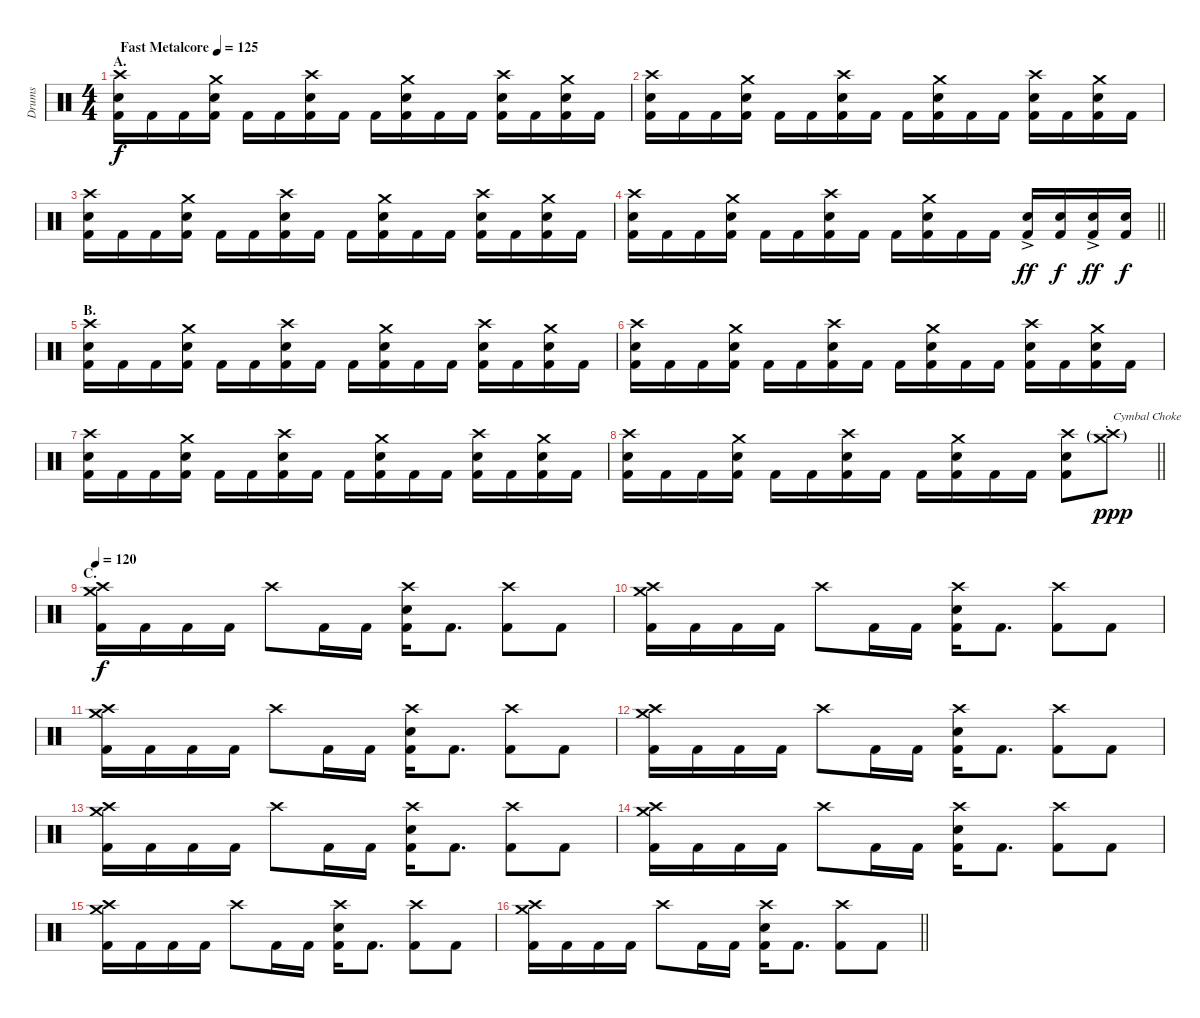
\track ("Drums" "Drums") {instrument percussion}
\staff {score}
\articulation defaults
\ts (4 4)
\section ("" "A.")
\tempo (125 "Fast Metalcore")
\clef neutral
\ks c
("Crash high (hit)" "Electric Snare (hit)" "Kick (hit) 2").16{dy f} "Kick (hit) 2".16 "Kick (hit) 2".16 ("Crash medium (hit)" "Electric Snare (hit)" "Kick (hit) 2").16 "Kick (hit) 2".16 "Kick (hit) 2".16 ("Crash high (hit)" "Electric Snare (hit)" "Kick (hit) 2").16 "Kick (hit) 2".16 "Kick (hit) 2".16 ("Crash medium (hit)" "Electric Snare (hit)" "Kick (hit) 2").16 "Kick (hit) 2".16 "Kick (hit) 2".16 ("Crash high (hit)" "Electric Snare (hit)" "Kick (hit) 2").16 "Kick (hit) 2".16 ("Crash medium (hit)" "Electric Snare (hit)" "Kick (hit) 2").16 "Kick (hit) 2".16 |
("Crash high (hit)" "Electric Snare (hit)" "Kick (hit) 2").16 "Kick (hit) 2".16 "Kick (hit) 2".16 ("Crash medium (hit)" "Electric Snare (hit)" "Kick (hit) 2").16 "Kick (hit) 2".16 "Kick (hit) 2".16 ("Crash high (hit)" "Electric Snare (hit)" "Kick (hit) 2").16 "Kick (hit) 2".16 "Kick (hit) 2".16 ("Crash medium (hit)" "Electric Snare (hit)" "Kick (hit) 2").16 "Kick (hit) 2".16 "Kick (hit) 2".16 ("Crash high (hit)" "Electric Snare (hit)" "Kick (hit) 2").16 "Kick (hit) 2".16 ("Crash medium (hit)" "Electric Snare (hit)" "Kick (hit) 2").16 "Kick (hit) 2".16 |
("Crash high (hit)" "Electric Snare (hit)" "Kick (hit) 2").16 "Kick (hit) 2".16 "Kick (hit) 2".16 ("Crash medium (hit)" "Electric Snare (hit)" "Kick (hit) 2").16 "Kick (hit) 2".16 "Kick (hit) 2".16 ("Crash high (hit)" "Electric Snare (hit)" "Kick (hit) 2").16 "Kick (hit) 2".16 "Kick (hit) 2".16 ("Crash medium (hit)" "Electric Snare (hit)" "Kick (hit) 2").16 "Kick (hit) 2".16 "Kick (hit) 2".16 ("Crash high (hit)" "Electric Snare (hit)" "Kick (hit) 2").16 "Kick (hit) 2".16 ("Crash medium (hit)" "Electric Snare (hit)" "Kick (hit) 2").16 "Kick (hit) 2".16 |
\barLineRight lightlight
("Crash high (hit)" "Electric Snare (hit)" "Kick (hit) 2").16 "Kick (hit) 2".16 "Kick (hit) 2".16 ("Crash medium (hit)" "Electric Snare (hit)" "Kick (hit) 2").16 "Kick (hit) 2".16 "Kick (hit) 2".16 ("Crash high (hit)" "Electric Snare (hit)" "Kick (hit) 2").16 "Kick (hit) 2".16 "Kick (hit) 2".16 ("Crash medium (hit)" "Electric Snare (hit)" "Kick (hit) 2").16 "Kick (hit) 2".16 "Kick (hit) 2".16 ("Electric Snare (hit)"{ac} "Kick (hit) 2").16{dy ff} ("Electric Snare (hit)" "Kick (hit) 2").16{dy f} ("Electric Snare (hit)"{ac} "Kick (hit) 2").16{dy ff} ("Electric Snare (hit)" "Kick (hit) 2").16{dy f} |
\section ("" "B.")
("Crash high (hit)" "Electric Snare (hit)" "Kick (hit) 2").16 "Kick (hit) 2".16 "Kick (hit) 2".16 ("Crash medium (hit)" "Electric Snare (hit)" "Kick (hit) 2").16 "Kick (hit) 2".16 "Kick (hit) 2".16 ("Crash high (hit)" "Electric Snare (hit)" "Kick (hit) 2").16 "Kick (hit) 2".16 "Kick (hit) 2".16 ("Crash medium (hit)" "Electric Snare (hit)" "Kick (hit) 2").16 "Kick (hit) 2".16 "Kick (hit) 2".16 ("Crash high (hit)" "Electric Snare (hit)" "Kick (hit) 2").16 "Kick (hit) 2".16 ("Crash medium (hit)" "Electric Snare (hit)" "Kick (hit) 2").16 "Kick (hit) 2".16 |
("Crash high (hit)" "Electric Snare (hit)" "Kick (hit) 2").16 "Kick (hit) 2".16 "Kick (hit) 2".16 ("Crash medium (hit)" "Electric Snare (hit)" "Kick (hit) 2").16 "Kick (hit) 2".16 "Kick (hit) 2".16 ("Crash high (hit)" "Electric Snare (hit)" "Kick (hit) 2").16 "Kick (hit) 2".16 "Kick (hit) 2".16 ("Crash medium (hit)" "Electric Snare (hit)" "Kick (hit) 2").16 "Kick (hit) 2".16 "Kick (hit) 2".16 ("Crash high (hit)" "Electric Snare (hit)" "Kick (hit) 2").16 "Kick (hit) 2".16 ("Crash medium (hit)" "Electric Snare (hit)" "Kick (hit) 2").16 "Kick (hit) 2".16 |
("Crash high (hit)" "Electric Snare (hit)" "Kick (hit) 2").16 "Kick (hit) 2".16 "Kick (hit) 2".16 ("Crash medium (hit)" "Electric Snare (hit)" "Kick (hit) 2").16 "Kick (hit) 2".16 "Kick (hit) 2".16 ("Crash high (hit)" "Electric Snare (hit)" "Kick (hit) 2").16 "Kick (hit) 2".16 "Kick (hit) 2".16 ("Crash medium (hit)" "Electric Snare (hit)" "Kick (hit) 2").16 "Kick (hit) 2".16 "Kick (hit) 2".16 ("Crash high (hit)" "Electric Snare (hit)" "Kick (hit) 2").16 "Kick (hit) 2".16 ("Crash medium (hit)" "Electric Snare (hit)" "Kick (hit) 2").16 "Kick (hit) 2".16 |
\barLineRight lightlight
("Crash high (hit)" "Electric Snare (hit)" "Kick (hit) 2").16 "Kick (hit) 2".16 "Kick (hit) 2".16 ("Crash medium (hit)" "Electric Snare (hit)" "Kick (hit) 2").16 "Kick (hit) 2".16 "Kick (hit) 2".16 ("Crash high (hit)" "Electric Snare (hit)" "Kick (hit) 2").16 "Kick (hit) 2".16 "Kick (hit) 2".16 ("Crash medium (hit)" "Electric Snare (hit)" "Kick (hit) 2").16 "Kick (hit) 2".16 "Kick (hit) 2".16 ("Crash high (hit)" "Electric Snare (hit)" "Kick (hit) 2").8 ("Crash high (hit)"{g st} "Crash medium (hit)"{g}).8{txt "Cymbal Choke" dy ppp} |
\section ("" "C.")
\tempo 120
("Crash medium (hit)" "Crash high (hit)" "Kick (hit) 2").16{dy f} "Kick (hit) 2".16 "Kick (hit) 2".16 "Kick (hit) 2".16 "Crash high (hit)".8 "Kick (hit) 2".16 "Kick (hit) 2".16 ("Crash high (hit)" "Electric Snare (hit)" "Kick (hit) 2").16 "Kick (hit) 2".8{d} ("Crash high (hit)" "Kick (hit) 2").8 "Kick (hit) 2".8 |
("Crash medium (hit)" "Crash high (hit)" "Kick (hit) 2").16 "Kick (hit) 2".16 "Kick (hit) 2".16 "Kick (hit) 2".16 "Crash high (hit)".8 "Kick (hit) 2".16 "Kick (hit) 2".16 ("Crash high (hit)" "Electric Snare (hit)" "Kick (hit) 2").16 "Kick (hit) 2".8{d} ("Crash high (hit)" "Kick (hit) 2").8 "Kick (hit) 2".8 |
("Crash medium (hit)" "Crash high (hit)" "Kick (hit) 2").16 "Kick (hit) 2".16 "Kick (hit) 2".16 "Kick (hit) 2".16 "Crash high (hit)".8 "Kick (hit) 2".16 "Kick (hit) 2".16 ("Crash high (hit)" "Electric Snare (hit)" "Kick (hit) 2").16 "Kick (hit) 2".8{d} ("Crash high (hit)" "Kick (hit) 2").8 "Kick (hit) 2".8 |
("Crash medium (hit)" "Crash high (hit)" "Kick (hit) 2").16 "Kick (hit) 2".16 "Kick (hit) 2".16 "Kick (hit) 2".16 "Crash high (hit)".8 "Kick (hit) 2".16 "Kick (hit) 2".16 ("Crash high (hit)" "Electric Snare (hit)" "Kick (hit) 2").16 "Kick (hit) 2".8{d} ("Crash high (hit)" "Kick (hit) 2").8 "Kick (hit) 2".8 |
("Crash medium (hit)" "Crash high (hit)" "Kick (hit) 2").16 "Kick (hit) 2".16 "Kick (hit) 2".16 "Kick (hit) 2".16 "Crash high (hit)".8 "Kick (hit) 2".16 "Kick (hit) 2".16 ("Crash high (hit)" "Electric Snare (hit)" "Kick (hit) 2").16 "Kick (hit) 2".8{d} ("Crash high (hit)" "Kick (hit) 2").8 "Kick (hit) 2".8 |
("Crash medium (hit)" "Crash high (hit)" "Kick (hit) 2").16 "Kick (hit) 2".16 "Kick (hit) 2".16 "Kick (hit) 2".16 "Crash high (hit)".8 "Kick (hit) 2".16 "Kick (hit) 2".16 ("Crash high (hit)" "Electric Snare (hit)" "Kick (hit) 2").16 "Kick (hit) 2".8{d} ("Crash high (hit)" "Kick (hit) 2").8 "Kick (hit) 2".8 |
("Crash medium (hit)" "Crash high (hit)" "Kick (hit) 2").16 "Kick (hit) 2".16 "Kick (hit) 2".16 "Kick (hit) 2".16 "Crash high (hit)".8 "Kick (hit) 2".16 "Kick (hit) 2".16 ("Crash high (hit)" "Electric Snare (hit)" "Kick (hit) 2").16 "Kick (hit) 2".8{d} ("Crash high (hit)" "Kick (hit) 2").8 "Kick (hit) 2".8 |
\barLineRight lightlight
("Crash medium (hit)" "Crash high (hit)" "Kick (hit) 2").16 "Kick (hit) 2".16 "Kick (hit) 2".16 "Kick (hit) 2".16 "Crash high (hit)".8 "Kick (hit) 2".16 "Kick (hit) 2".16 ("Crash high (hit)" "Electric Snare (hit)" "Kick (hit) 2").16 "Kick (hit) 2".8{d} ("Crash high (hit)" "Kick (hit) 2").8 "Kick (hit) 2".8
